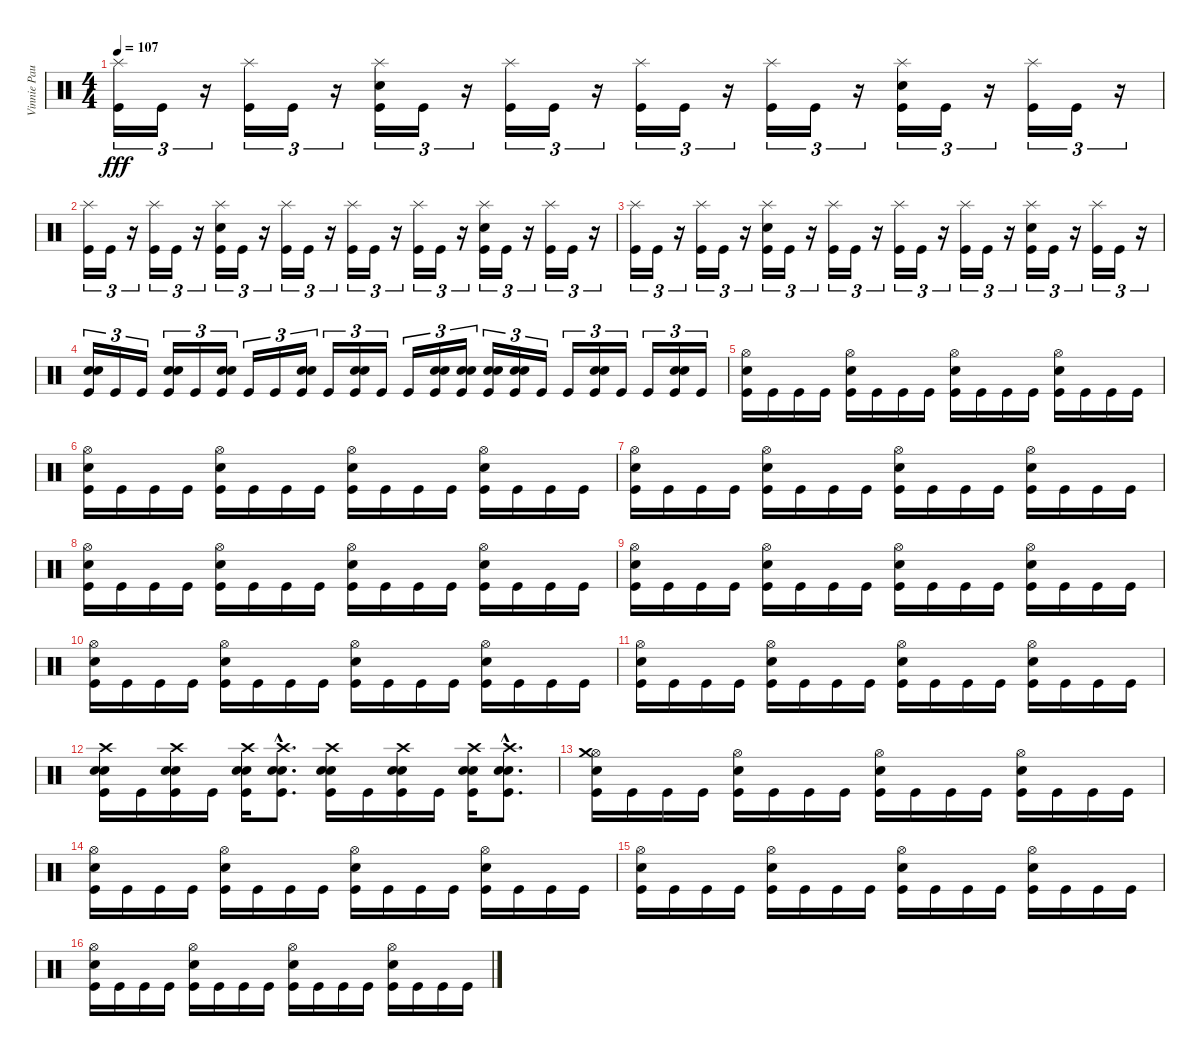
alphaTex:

\track ("Vinnie Paul" "Vinnie Pau") {instrument percussion}
\staff {score}
\articulation defaults
\ts (4 4)
\tempo 107
\clef neutral
\ks c
("Splash (hit)" "Kick (hit)").16{tu (3 2) dy fff} "Kick (hit)".16{tu (3 2)} r.16{tu (3 2)} ("Splash (hit)" "Kick (hit)").16{tu (3 2)} "Kick (hit)".16{tu (3 2)} r.16{tu (3 2)} ("Splash (hit)" "Kick (hit)" "Electric Snare (hit)").16{tu (3 2)} "Kick (hit)".16{tu (3 2)} r.16{tu (3 2)} ("Splash (hit)" "Kick (hit)").16{tu (3 2)} "Kick (hit)".16{tu (3 2)} r.16{tu (3 2)} ("Splash (hit)" "Kick (hit)").16{tu (3 2)} "Kick (hit)".16{tu (3 2)} r.16{tu (3 2)} ("Splash (hit)" "Kick (hit)").16{tu (3 2)} "Kick (hit)".16{tu (3 2)} r.16{tu (3 2)} ("Splash (hit)" "Kick (hit)" "Electric Snare (hit)").16{tu (3 2)} "Kick (hit)".16{tu (3 2)} r.16{tu (3 2)} ("Splash (hit)" "Kick (hit)").16{tu (3 2)} "Kick (hit)".16{tu (3 2)} r.16{tu (3 2)} |
("Splash (hit)" "Kick (hit)").16{tu (3 2)} "Kick (hit)".16{tu (3 2)} r.16{tu (3 2)} ("Splash (hit)" "Kick (hit)").16{tu (3 2)} "Kick (hit)".16{tu (3 2)} r.16{tu (3 2)} ("Splash (hit)" "Kick (hit)" "Electric Snare (hit)").16{tu (3 2)} "Kick (hit)".16{tu (3 2)} r.16{tu (3 2)} ("Splash (hit)" "Kick (hit)").16{tu (3 2)} "Kick (hit)".16{tu (3 2)} r.16{tu (3 2)} ("Splash (hit)" "Kick (hit)").16{tu (3 2)} "Kick (hit)".16{tu (3 2)} r.16{tu (3 2)} ("Splash (hit)" "Kick (hit)").16{tu (3 2)} "Kick (hit)".16{tu (3 2)} r.16{tu (3 2)} ("Splash (hit)" "Kick (hit)" "Electric Snare (hit)").16{tu (3 2)} "Kick (hit)".16{tu (3 2)} r.16{tu (3 2)} ("Splash (hit)" "Kick (hit)").16{tu (3 2)} "Kick (hit)".16{tu (3 2)} r.16{tu (3 2)} |
("Splash (hit)" "Kick (hit)").16{tu (3 2)} "Kick (hit)".16{tu (3 2)} r.16{tu (3 2)} ("Splash (hit)" "Kick (hit)").16{tu (3 2)} "Kick (hit)".16{tu (3 2)} r.16{tu (3 2)} ("Splash (hit)" "Kick (hit)" "Electric Snare (hit)").16{tu (3 2)} "Kick (hit)".16{tu (3 2)} r.16{tu (3 2)} ("Splash (hit)" "Kick (hit)").16{tu (3 2)} "Kick (hit)".16{tu (3 2)} r.16{tu (3 2)} ("Splash (hit)" "Kick (hit)").16{tu (3 2)} "Kick (hit)".16{tu (3 2)} r.16{tu (3 2)} ("Splash (hit)" "Kick (hit)").16{tu (3 2)} "Kick (hit)".16{tu (3 2)} r.16{tu (3 2)} ("Splash (hit)" "Kick (hit)" "Electric Snare (hit)").16{tu (3 2)} "Kick (hit)".16{tu (3 2)} r.16{tu (3 2)} ("Splash (hit)" "Kick (hit)").16{tu (3 2)} "Kick (hit)".16{tu (3 2)} r.16{tu (3 2)} |
("Kick (hit)" "Electric Snare (hit)" "Electric Snare (hit)").16{tu (3 2)} "Kick (hit)".16{tu (3 2)} "Kick (hit)".16{tu (3 2)} ("Kick (hit)" "Electric Snare (hit)" "Electric Snare (hit)").16{tu (3 2)} "Kick (hit)".16{tu (3 2)} ("Kick (hit)" "Electric Snare (hit)" "Electric Snare (hit)").16{tu (3 2)} "Kick (hit)".16{tu (3 2)} "Kick (hit)".16{tu (3 2)} ("Kick (hit)" "Electric Snare (hit)" "Electric Snare (hit)").16{tu (3 2)} "Kick (hit)".16{tu (3 2)} ("Kick (hit)" "Electric Snare (hit)" "Electric Snare (hit)").16{tu (3 2)} "Kick (hit)".16{tu (3 2)} "Kick (hit)".16{tu (3 2)} ("Kick (hit)" "Electric Snare (hit)" "Electric Snare (hit)").16{tu (3 2)} ("Kick (hit)" "Electric Snare (hit)" "Electric Snare (hit)").16{tu (3 2)} ("Kick (hit)" "Electric Snare (hit)" "Electric Snare (hit)").16{tu (3 2)} ("Kick (hit)" "Electric Snare (hit)" "Electric Snare (hit)").16{tu (3 2)} "Kick (hit)".16{tu (3 2)} "Kick (hit)".16{tu (3 2)} ("Kick (hit)" "Electric Snare (hit)" "Electric Snare (hit)").16{tu (3 2)} "Kick (hit)".16{tu (3 2)} "Kick (hit)".16{tu (3 2)} ("Kick (hit)" "Electric Snare (hit)" "Electric Snare (hit)").16{tu (3 2)} "Kick (hit)".16{tu (3 2)} |
("Hi-Hat (open)" "Kick (hit)" "Electric Snare (hit)").16 "Kick (hit)".16 "Kick (hit)".16 "Kick (hit)".16 ("Hi-Hat (open)" "Kick (hit)" "Electric Snare (hit)").16 "Kick (hit)".16 "Kick (hit)".16 "Kick (hit)".16 ("Hi-Hat (open)" "Kick (hit)" "Electric Snare (hit)").16 "Kick (hit)".16 "Kick (hit)".16 "Kick (hit)".16 ("Hi-Hat (open)" "Kick (hit)" "Electric Snare (hit)").16 "Kick (hit)".16 "Kick (hit)".16 "Kick (hit)".16 |
("Hi-Hat (open)" "Kick (hit)" "Electric Snare (hit)").16 "Kick (hit)".16 "Kick (hit)".16 "Kick (hit)".16 ("Hi-Hat (open)" "Kick (hit)" "Electric Snare (hit)").16 "Kick (hit)".16 "Kick (hit)".16 "Kick (hit)".16 ("Hi-Hat (open)" "Kick (hit)" "Electric Snare (hit)").16 "Kick (hit)".16 "Kick (hit)".16 "Kick (hit)".16 ("Hi-Hat (open)" "Kick (hit)" "Electric Snare (hit)").16 "Kick (hit)".16 "Kick (hit)".16 "Kick (hit)".16 |
("Hi-Hat (open)" "Kick (hit)" "Electric Snare (hit)").16 "Kick (hit)".16 "Kick (hit)".16 "Kick (hit)".16 ("Hi-Hat (open)" "Kick (hit)" "Electric Snare (hit)").16 "Kick (hit)".16 "Kick (hit)".16 "Kick (hit)".16 ("Hi-Hat (open)" "Kick (hit)" "Electric Snare (hit)").16 "Kick (hit)".16 "Kick (hit)".16 "Kick (hit)".16 ("Hi-Hat (open)" "Kick (hit)" "Electric Snare (hit)").16 "Kick (hit)".16 "Kick (hit)".16 "Kick (hit)".16 |
("Hi-Hat (open)" "Kick (hit)" "Electric Snare (hit)").16 "Kick (hit)".16 "Kick (hit)".16 "Kick (hit)".16 ("Hi-Hat (open)" "Kick (hit)" "Electric Snare (hit)").16 "Kick (hit)".16 "Kick (hit)".16 "Kick (hit)".16 ("Hi-Hat (open)" "Kick (hit)" "Electric Snare (hit)").16 "Kick (hit)".16 "Kick (hit)".16 "Kick (hit)".16 ("Hi-Hat (open)" "Kick (hit)" "Electric Snare (hit)").16 "Kick (hit)".16 "Kick (hit)".16 "Kick (hit)".16 |
("Hi-Hat (open)" "Kick (hit)" "Electric Snare (hit)").16 "Kick (hit)".16 "Kick (hit)".16 "Kick (hit)".16 ("Hi-Hat (open)" "Kick (hit)" "Electric Snare (hit)").16 "Kick (hit)".16 "Kick (hit)".16 "Kick (hit)".16 ("Hi-Hat (open)" "Kick (hit)" "Electric Snare (hit)").16 "Kick (hit)".16 "Kick (hit)".16 "Kick (hit)".16 ("Hi-Hat (open)" "Kick (hit)" "Electric Snare (hit)").16 "Kick (hit)".16 "Kick (hit)".16 "Kick (hit)".16 |
("Hi-Hat (open)" "Kick (hit)" "Electric Snare (hit)").16 "Kick (hit)".16 "Kick (hit)".16 "Kick (hit)".16 ("Hi-Hat (open)" "Kick (hit)" "Electric Snare (hit)").16 "Kick (hit)".16 "Kick (hit)".16 "Kick (hit)".16 ("Hi-Hat (open)" "Kick (hit)" "Electric Snare (hit)").16 "Kick (hit)".16 "Kick (hit)".16 "Kick (hit)".16 ("Hi-Hat (open)" "Kick (hit)" "Electric Snare (hit)").16 "Kick (hit)".16 "Kick (hit)".16 "Kick (hit)".16 |
("Hi-Hat (open)" "Kick (hit)" "Electric Snare (hit)").16 "Kick (hit)".16 "Kick (hit)".16 "Kick (hit)".16 ("Hi-Hat (open)" "Kick (hit)" "Electric Snare (hit)").16 "Kick (hit)".16 "Kick (hit)".16 "Kick (hit)".16 ("Hi-Hat (open)" "Kick (hit)" "Electric Snare (hit)").16 "Kick (hit)".16 "Kick (hit)".16 "Kick (hit)".16 ("Hi-Hat (open)" "Kick (hit)" "Electric Snare (hit)").16 "Kick (hit)".16 "Kick (hit)".16 "Kick (hit)".16 |
("Crash high (hit)" "Kick (hit)" "Electric Snare (hit)" "Electric Snare (hit)").16 "Kick (hit)".16 ("Crash high (hit)" "Kick (hit)" "Electric Snare (hit)" "Electric Snare (hit)").16 "Kick (hit)".16 ("Crash high (hit)" "Kick (hit)" "Electric Snare (hit)" "Electric Snare (hit)").16 ("Crash high (hit)"{hac} "Kick (hit)"{hac} "Electric Snare (hit)"{hac} "Electric Snare (hit)"{hac}).8{d} ("Crash high (hit)" "Kick (hit)" "Electric Snare (hit)" "Electric Snare (hit)").16 "Kick (hit)".16 ("Crash high (hit)" "Kick (hit)" "Electric Snare (hit)" "Electric Snare (hit)").16 "Kick (hit)".16 ("Crash high (hit)" "Kick (hit)" "Electric Snare (hit)" "Electric Snare (hit)").16 ("Crash high (hit)"{hac} "Kick (hit)"{hac} "Electric Snare (hit)"{hac} "Electric Snare (hit)"{hac}).8{d} |
("Hi-Hat (open)" "Crash medium (hit)" "Kick (hit)" "Electric Snare (hit)").16 "Kick (hit)".16 "Kick (hit)".16 "Kick (hit)".16 ("Hi-Hat (open)" "Kick (hit)" "Electric Snare (hit)").16 "Kick (hit)".16 "Kick (hit)".16 "Kick (hit)".16 ("Hi-Hat (open)" "Kick (hit)" "Electric Snare (hit)").16 "Kick (hit)".16 "Kick (hit)".16 "Kick (hit)".16 ("Hi-Hat (open)" "Kick (hit)" "Electric Snare (hit)").16 "Kick (hit)".16 "Kick (hit)".16 "Kick (hit)".16 |
("Hi-Hat (open)" "Kick (hit)" "Electric Snare (hit)").16 "Kick (hit)".16 "Kick (hit)".16 "Kick (hit)".16 ("Hi-Hat (open)" "Kick (hit)" "Electric Snare (hit)").16 "Kick (hit)".16 "Kick (hit)".16 "Kick (hit)".16 ("Hi-Hat (open)" "Kick (hit)" "Electric Snare (hit)").16 "Kick (hit)".16 "Kick (hit)".16 "Kick (hit)".16 ("Hi-Hat (open)" "Kick (hit)" "Electric Snare (hit)").16 "Kick (hit)".16 "Kick (hit)".16 "Kick (hit)".16 |
("Hi-Hat (open)" "Kick (hit)" "Electric Snare (hit)").16 "Kick (hit)".16 "Kick (hit)".16 "Kick (hit)".16 ("Hi-Hat (open)" "Kick (hit)" "Electric Snare (hit)").16 "Kick (hit)".16 "Kick (hit)".16 "Kick (hit)".16 ("Hi-Hat (open)" "Kick (hit)" "Electric Snare (hit)").16 "Kick (hit)".16 "Kick (hit)".16 "Kick (hit)".16 ("Hi-Hat (open)" "Kick (hit)" "Electric Snare (hit)").16 "Kick (hit)".16 "Kick (hit)".16 "Kick (hit)".16 |
("Hi-Hat (open)" "Kick (hit)" "Electric Snare (hit)").16 "Kick (hit)".16 "Kick (hit)".16 "Kick (hit)".16 ("Hi-Hat (open)" "Kick (hit)" "Electric Snare (hit)").16 "Kick (hit)".16 "Kick (hit)".16 "Kick (hit)".16 ("Hi-Hat (open)" "Kick (hit)" "Electric Snare (hit)").16 "Kick (hit)".16 "Kick (hit)".16 "Kick (hit)".16 ("Hi-Hat (open)" "Kick (hit)" "Electric Snare (hit)").16 "Kick (hit)".16 "Kick (hit)".16 "Kick (hit)".16
